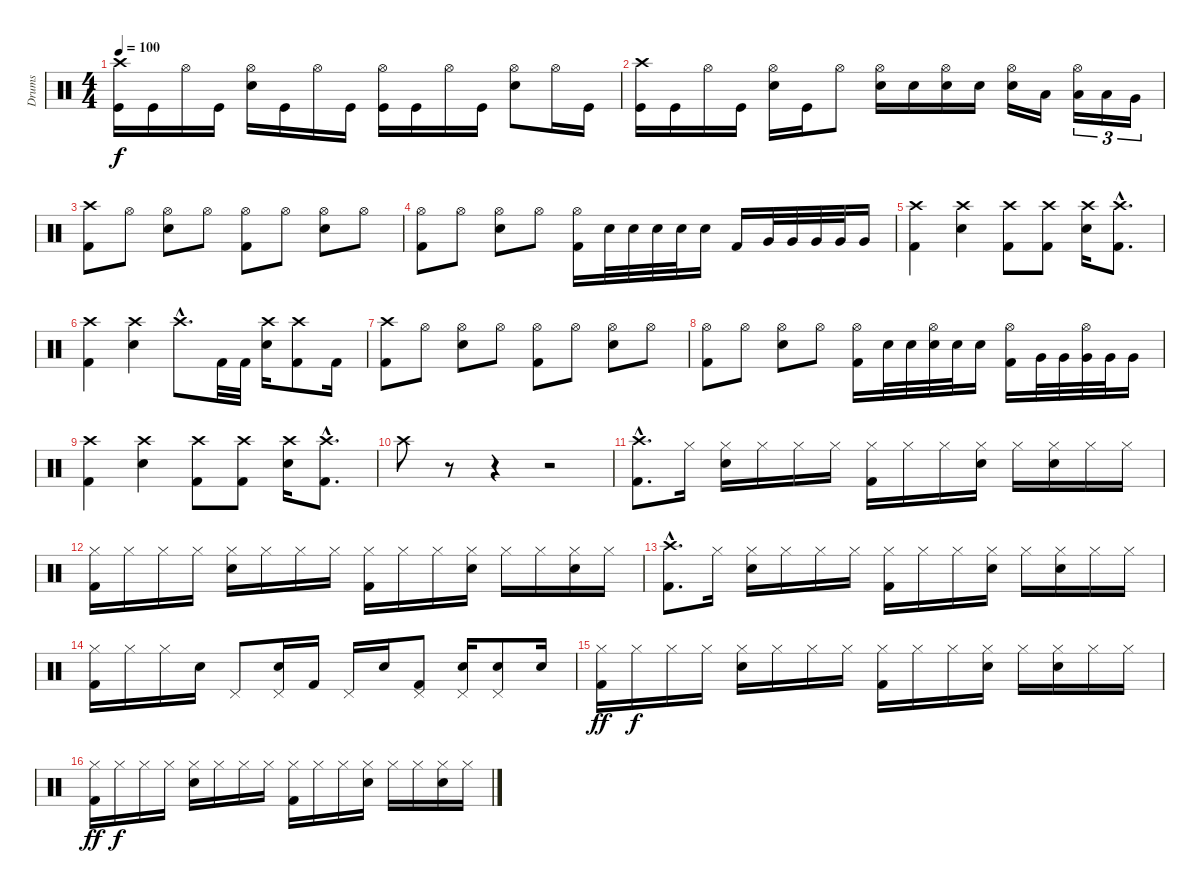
\track ("Drums" "Drums") {instrument percussion}
\staff {score}
\articulation defaults
\ts (4 4)
\tempo 100
\clef neutral
\ks c
("Crash high (hit)" "Kick (hit)").16{dy f} "Kick (hit)".16 "Hi-Hat (open)".16 "Kick (hit)".16 ("Hi-Hat (open)" "Electric Snare (hit)").16 "Kick (hit)".16 "Hi-Hat (open)".16 "Kick (hit)".16 ("Hi-Hat (open)" "Kick (hit)").16 "Kick (hit)".16 "Hi-Hat (open)".16 "Kick (hit)".16 ("Hi-Hat (open)" "Electric Snare (hit)").8 "Hi-Hat (open)".16 "Kick (hit)".16 |
("Crash high (hit)" "Kick (hit)").16 "Kick (hit)".16 "Hi-Hat (open)".16 "Kick (hit)".16 ("Hi-Hat (open)" "Electric Snare (hit)").16 "Kick (hit)".16 "Hi-Hat (open)".8 ("Hi-Hat (open)" "Electric Snare (hit)").16 "Electric Snare (hit)".16 ("Hi-Hat (open)" "Electric Snare (hit)").16 "Electric Snare (hit)".16 ("Hi-Hat (open)" "Electric Snare (hit)").16 "Low Tom (hit)".16 ("Hi-Hat (open)" "Low Tom (hit)").16{tu (3 2)} "Low Tom (hit)".16{tu (3 2)} "Very Low Tom (hit)".16{tu (3 2)} |
("Crash high (hit)" "Kick (hit) 2").8 "Hi-Hat (open)".8 ("Hi-Hat (open)" "Electric Snare (hit)").8 "Hi-Hat (open)".8 ("Hi-Hat (open)" "Kick (hit) 2").8 "Hi-Hat (open)".8 ("Hi-Hat (open)" "Electric Snare (hit)").8 "Hi-Hat (open)".8 |
("Hi-Hat (open)" "Kick (hit) 2").8 "Hi-Hat (open)".8 ("Hi-Hat (open)" "Electric Snare (hit)").8 "Hi-Hat (open)".8 ("Hi-Hat (open)" "Kick (hit) 2").16 "Electric Snare (hit)".32 "Electric Snare (hit)".32 "Electric Snare (hit)".32 "Electric Snare (hit)".32 "Electric Snare (hit)".16 "Kick (hit) 2".16 "Very Low Tom (hit)".32 "Very Low Tom (hit)".32 "Very Low Tom (hit)".32 "Very Low Tom (hit)".32 "Very Low Tom (hit)".16 |
("Crash high (hit)" "Kick (hit) 2").4 ("Crash high (hit)" "Electric Snare (hit)").4 ("Crash high (hit)" "Kick (hit) 2").8 ("Crash high (hit)" "Kick (hit) 2").8 ("Crash high (hit)" "Electric Snare (hit)").16 ("Crash high (hit)"{hac} "Kick (hit) 2"{hac}).8{d} |
("Crash high (hit)" "Kick (hit) 2").4 ("Crash high (hit)" "Electric Snare (hit)").4 "Crash high (hit)"{hac}.8{d} "Kick (hit) 2".32 "Kick (hit) 2".32 ("Crash high (hit)" "Electric Snare (hit)").16 ("Crash high (hit)" "Kick (hit) 2").8 "Kick (hit) 2".16 |
("Crash high (hit)" "Kick (hit) 2").8 "Hi-Hat (open)".8 ("Hi-Hat (open)" "Electric Snare (hit)").8 "Hi-Hat (open)".8 ("Hi-Hat (open)" "Kick (hit) 2").8 "Hi-Hat (open)".8 ("Hi-Hat (open)" "Electric Snare (hit)").8 "Hi-Hat (open)".8 |
("Hi-Hat (open)" "Kick (hit) 2").8 "Hi-Hat (open)".8 ("Hi-Hat (open)" "Electric Snare (hit)").8 "Hi-Hat (open)".8 ("Hi-Hat (open)" "Kick (hit) 2").16 "Electric Snare (hit)".32 "Electric Snare (hit)".32 ("Hi-Hat (open)" "Electric Snare (hit)").32 "Electric Snare (hit)".32 "Electric Snare (hit)".16 ("Hi-Hat (open)" "Kick (hit) 2").16 "Very Low Tom (hit)".32 "Very Low Tom (hit)".32 ("Hi-Hat (open)" "Very Low Tom (hit)").32 "Very Low Tom (hit)".32 "Very Low Tom (hit)".16 |
("Crash high (hit)" "Kick (hit) 2").4 ("Crash high (hit)" "Electric Snare (hit)").4 ("Crash high (hit)" "Kick (hit) 2").8 ("Crash high (hit)" "Kick (hit) 2").8 ("Crash high (hit)" "Electric Snare (hit)").16 ("Crash high (hit)"{hac} "Kick (hit) 2"{hac}).8{d} |
"Crash high (hit)".8 r.8 r.4 r.2 |
("Crash high (hit)"{hac} "Kick (hit) 2"{hac}).8{d} "Hi-Hat (closed)".16 ("Hi-Hat (closed)" "Electric Snare (hit)").16 "Hi-Hat (closed)".16 "Hi-Hat (closed)".16 "Hi-Hat (closed)".16 ("Hi-Hat (closed)" "Kick (hit) 2").16 "Hi-Hat (closed)".16 "Hi-Hat (closed)".16 ("Hi-Hat (closed)" "Electric Snare (hit)").16 "Hi-Hat (closed)".16 ("Hi-Hat (closed)" "Electric Snare (hit)").16 "Hi-Hat (closed)".16 "Hi-Hat (closed)".16 |
("Hi-Hat (closed)" "Kick (hit) 2").16 "Hi-Hat (closed)".16 "Hi-Hat (closed)".16 "Hi-Hat (closed)".16 ("Hi-Hat (closed)" "Electric Snare (hit)").16 "Hi-Hat (closed)".16 "Hi-Hat (closed)".16 "Hi-Hat (closed)".16 ("Hi-Hat (closed)" "Kick (hit) 2").16 "Hi-Hat (closed)".16 "Hi-Hat (closed)".16 ("Hi-Hat (closed)" "Electric Snare (hit)").16 "Hi-Hat (closed)".16 "Hi-Hat (closed)".16 ("Hi-Hat (closed)" "Electric Snare (hit)").16 "Hi-Hat (closed)".16 |
("Crash high (hit)"{hac} "Kick (hit) 2"{hac}).8{d} "Hi-Hat (closed)".16 ("Hi-Hat (closed)" "Electric Snare (hit)").16 "Hi-Hat (closed)".16 "Hi-Hat (closed)".16 "Hi-Hat (closed)".16 ("Hi-Hat (closed)" "Kick (hit) 2").16 "Hi-Hat (closed)".16 "Hi-Hat (closed)".16 ("Hi-Hat (closed)" "Electric Snare (hit)").16 "Hi-Hat (closed)".16 ("Hi-Hat (closed)" "Electric Snare (hit)").16 "Hi-Hat (closed)".16 "Hi-Hat (closed)".16 |
("Hi-Hat (closed)" "Kick (hit) 2").16 "Hi-Hat (closed)".16 "Hi-Hat (closed)".16 "Electric Snare (hit)".16 "Pedal Hi-Hat (hit)".8 ("Pedal Hi-Hat (hit)" "Electric Snare (hit)").16 "Kick (hit) 2".16 "Pedal Hi-Hat (hit)".16 "Electric Snare (hit)".16 ("Pedal Hi-Hat (hit)" "Kick (hit) 2").8 ("Pedal Hi-Hat (hit)" "Electric Snare (hit)").16 ("Pedal Hi-Hat (hit)" "Electric Snare (hit)").8 "Electric Snare (hit)".16 |
("Hi-Hat (closed)" "Kick (hit) 2").16{dy ff} "Hi-Hat (closed)".16{dy f} "Hi-Hat (closed)".16 "Hi-Hat (closed)".16 ("Hi-Hat (closed)" "Electric Snare (hit)").16 "Hi-Hat (closed)".16 "Hi-Hat (closed)".16 "Hi-Hat (closed)".16 ("Hi-Hat (closed)" "Kick (hit) 2").16 "Hi-Hat (closed)".16 "Hi-Hat (closed)".16 ("Hi-Hat (closed)" "Electric Snare (hit)").16 "Hi-Hat (closed)".16 ("Hi-Hat (closed)" "Electric Snare (hit)").16 "Hi-Hat (closed)".16 "Hi-Hat (closed)".16 |
("Hi-Hat (closed)" "Kick (hit) 2").16{dy ff} "Hi-Hat (closed)".16{dy f} "Hi-Hat (closed)".16 "Hi-Hat (closed)".16 ("Hi-Hat (closed)" "Electric Snare (hit)").16 "Hi-Hat (closed)".16 "Hi-Hat (closed)".16 "Hi-Hat (closed)".16 ("Hi-Hat (closed)" "Kick (hit) 2").16 "Hi-Hat (closed)".16 "Hi-Hat (closed)".16 ("Hi-Hat (closed)" "Electric Snare (hit)").16 "Hi-Hat (closed)".16 "Hi-Hat (closed)".16 ("Hi-Hat (closed)" "Electric Snare (hit)").16 "Hi-Hat (closed)".16
